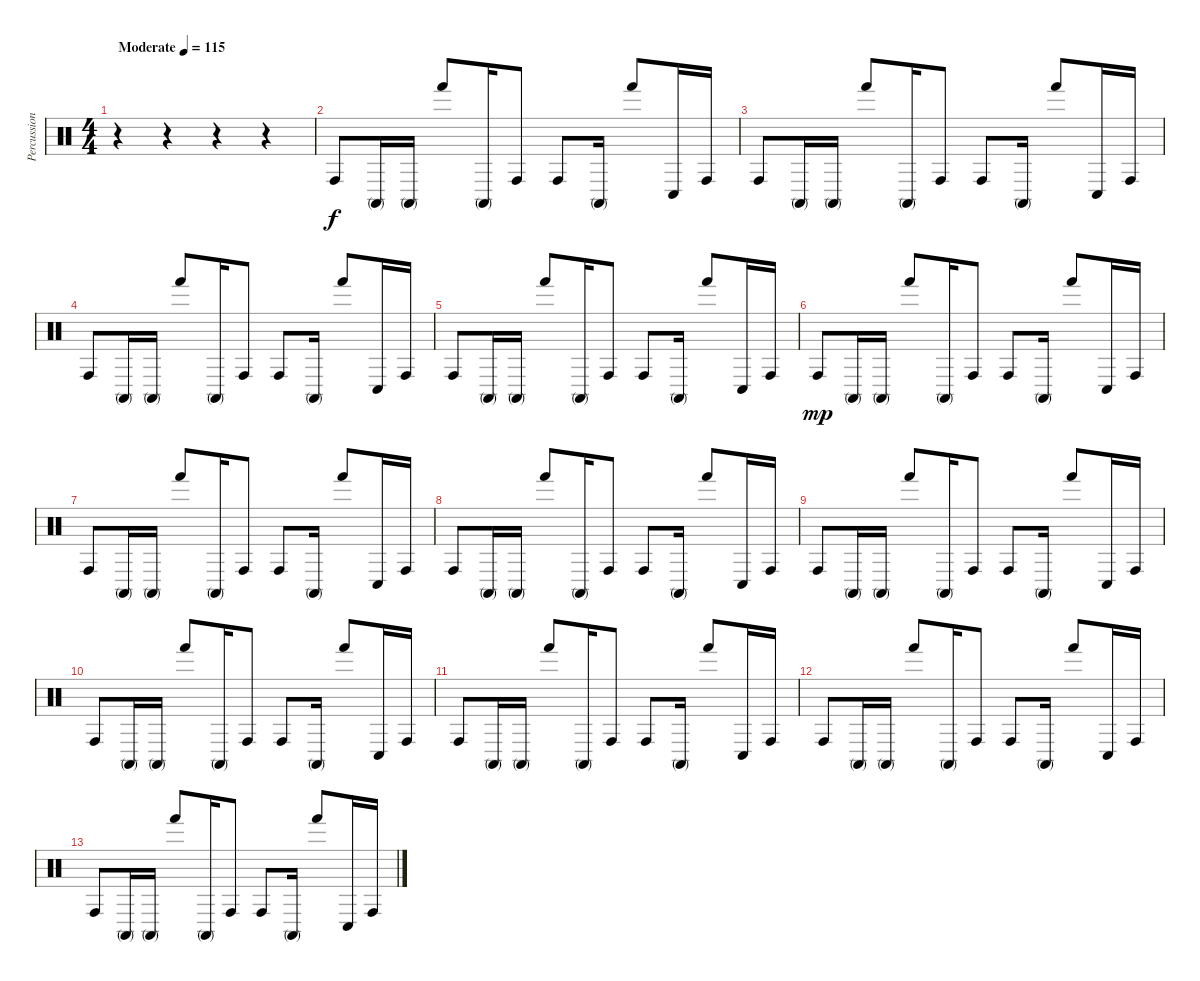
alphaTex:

\track ("Percussion" "Percussion") {instrument percussion}
\staff {score}
\articulation defaults
\ts (4 4)
\tempo (115 "Moderate")
\clef neutral
\ks c
r.4{dy f} r.4 r.4 r.4 |
"Conga high (hit)".8 "Conga high (mute)".16 "Conga high (mute)".16 "Hand (hit)".8 "Conga high (mute)".16 "Conga high (hit)".8 "Conga high (hit)".8 "Conga high (mute)".16 "Hand (hit)".8 "Conga low (hit)".16 "Conga high (hit)".16 |
"Conga high (hit)".8 "Conga high (mute)".16 "Conga high (mute)".16 "Hand (hit)".8 "Conga high (mute)".16 "Conga high (hit)".8 "Conga high (hit)".8 "Conga high (mute)".16 "Hand (hit)".8 "Conga low (hit)".16 "Conga high (hit)".16 |
"Conga high (hit)".8 "Conga high (mute)".16 "Conga high (mute)".16 "Hand (hit)".8 "Conga high (mute)".16 "Conga high (hit)".8 "Conga high (hit)".8 "Conga high (mute)".16 "Hand (hit)".8 "Conga low (hit)".16 "Conga high (hit)".16 |
"Conga high (hit)".8 "Conga high (mute)".16 "Conga high (mute)".16 "Hand (hit)".8 "Conga high (mute)".16 "Conga high (hit)".8 "Conga high (hit)".8 "Conga high (mute)".16 "Hand (hit)".8 "Conga low (hit)".16 "Conga high (hit)".16 |
"Conga high (hit)".8{dy mp} "Conga high (mute)".16 "Conga high (mute)".16 "Hand (hit)".8 "Conga high (mute)".16 "Conga high (hit)".8 "Conga high (hit)".8 "Conga high (mute)".16 "Hand (hit)".8 "Conga low (hit)".16 "Conga high (hit)".16 |
"Conga high (hit)".8 "Conga high (mute)".16 "Conga high (mute)".16 "Hand (hit)".8 "Conga high (mute)".16 "Conga high (hit)".8 "Conga high (hit)".8 "Conga high (mute)".16 "Hand (hit)".8 "Conga low (hit)".16 "Conga high (hit)".16 |
"Conga high (hit)".8 "Conga high (mute)".16 "Conga high (mute)".16 "Hand (hit)".8 "Conga high (mute)".16 "Conga high (hit)".8 "Conga high (hit)".8 "Conga high (mute)".16 "Hand (hit)".8 "Conga low (hit)".16 "Conga high (hit)".16 |
"Conga high (hit)".8 "Conga high (mute)".16 "Conga high (mute)".16 "Hand (hit)".8 "Conga high (mute)".16 "Conga high (hit)".8 "Conga high (hit)".8 "Conga high (mute)".16 "Hand (hit)".8 "Conga low (hit)".16 "Conga high (hit)".16 |
"Conga high (hit)".8 "Conga high (mute)".16 "Conga high (mute)".16 "Hand (hit)".8 "Conga high (mute)".16 "Conga high (hit)".8 "Conga high (hit)".8 "Conga high (mute)".16 "Hand (hit)".8 "Conga low (hit)".16 "Conga high (hit)".16 |
"Conga high (hit)".8 "Conga high (mute)".16 "Conga high (mute)".16 "Hand (hit)".8 "Conga high (mute)".16 "Conga high (hit)".8 "Conga high (hit)".8 "Conga high (mute)".16 "Hand (hit)".8 "Conga low (hit)".16 "Conga high (hit)".16 |
"Conga high (hit)".8 "Conga high (mute)".16 "Conga high (mute)".16 "Hand (hit)".8 "Conga high (mute)".16 "Conga high (hit)".8 "Conga high (hit)".8 "Conga high (mute)".16 "Hand (hit)".8 "Conga low (hit)".16 "Conga high (hit)".16 |
"Conga high (hit)".8 "Conga high (mute)".16 "Conga high (mute)".16 "Hand (hit)".8 "Conga high (mute)".16 "Conga high (hit)".8 "Conga high (hit)".8 "Conga high (mute)".16 "Hand (hit)".8 "Conga low (hit)".16 "Conga high (hit)".16
